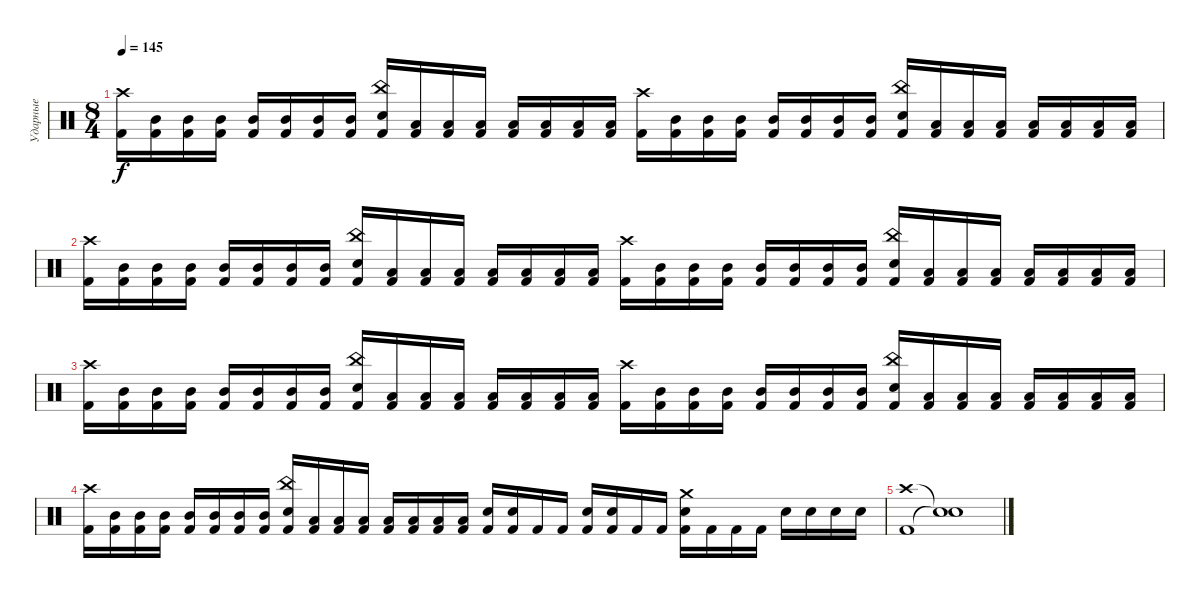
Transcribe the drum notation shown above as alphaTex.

\track ("Ударные" "Ударные") {instrument percussion}
\staff {score}
\articulation defaults
\ts (8 4)
\tempo 145
\clef neutral
\ks c
("Crash high (hit)" "Kick (hit) 2").16{dy f} ("Mid Tom (hit)" "Kick (hit) 2").16 ("Mid Tom (hit)" "Kick (hit) 2").16 ("Mid Tom (hit)" "Kick (hit) 2").16 ("Mid Tom (hit)" "Kick (hit) 2").16 ("Mid Tom (hit)" "Kick (hit) 2").16 ("Mid Tom (hit)" "Kick (hit) 2").16 ("Mid Tom (hit)" "Kick (hit) 2").16 ("China (hit)" "Electric Snare (hit)" "Kick (hit) 2").16 ("Low Tom (hit)" "Kick (hit) 2").16 ("Low Tom (hit)" "Kick (hit) 2").16 ("Low Tom (hit)" "Kick (hit) 2").16 ("Low Tom (hit)" "Kick (hit) 2").16 ("Low Tom (hit)" "Kick (hit) 2").16 ("Low Tom (hit)" "Kick (hit) 2").16 ("Low Tom (hit)" "Kick (hit) 2").16 ("Crash high (hit)" "Kick (hit) 2").16 ("Mid Tom (hit)" "Kick (hit) 2").16 ("Mid Tom (hit)" "Kick (hit) 2").16 ("Mid Tom (hit)" "Kick (hit) 2").16 ("Mid Tom (hit)" "Kick (hit) 2").16 ("Mid Tom (hit)" "Kick (hit) 2").16 ("Mid Tom (hit)" "Kick (hit) 2").16 ("Mid Tom (hit)" "Kick (hit) 2").16 ("China (hit)" "Electric Snare (hit)" "Kick (hit) 2").16 ("Low Tom (hit)" "Kick (hit) 2").16 ("Low Tom (hit)" "Kick (hit) 2").16 ("Low Tom (hit)" "Kick (hit) 2").16 ("Low Tom (hit)" "Kick (hit) 2").16 ("Low Tom (hit)" "Kick (hit) 2").16 ("Low Tom (hit)" "Kick (hit) 2").16 ("Low Tom (hit)" "Kick (hit) 2").16 |
("Crash high (hit)" "Kick (hit) 2").16 ("Mid Tom (hit)" "Kick (hit) 2").16 ("Mid Tom (hit)" "Kick (hit) 2").16 ("Mid Tom (hit)" "Kick (hit) 2").16 ("Mid Tom (hit)" "Kick (hit) 2").16 ("Mid Tom (hit)" "Kick (hit) 2").16 ("Mid Tom (hit)" "Kick (hit) 2").16 ("Mid Tom (hit)" "Kick (hit) 2").16 ("China (hit)" "Electric Snare (hit)" "Kick (hit) 2").16 ("Low Tom (hit)" "Kick (hit) 2").16 ("Low Tom (hit)" "Kick (hit) 2").16 ("Low Tom (hit)" "Kick (hit) 2").16 ("Low Tom (hit)" "Kick (hit) 2").16 ("Low Tom (hit)" "Kick (hit) 2").16 ("Low Tom (hit)" "Kick (hit) 2").16 ("Low Tom (hit)" "Kick (hit) 2").16 ("Crash high (hit)" "Kick (hit) 2").16 ("Mid Tom (hit)" "Kick (hit) 2").16 ("Mid Tom (hit)" "Kick (hit) 2").16 ("Mid Tom (hit)" "Kick (hit) 2").16 ("Mid Tom (hit)" "Kick (hit) 2").16 ("Mid Tom (hit)" "Kick (hit) 2").16 ("Mid Tom (hit)" "Kick (hit) 2").16 ("Mid Tom (hit)" "Kick (hit) 2").16 ("China (hit)" "Electric Snare (hit)" "Kick (hit) 2").16 ("Low Tom (hit)" "Kick (hit) 2").16 ("Low Tom (hit)" "Kick (hit) 2").16 ("Low Tom (hit)" "Kick (hit) 2").16 ("Low Tom (hit)" "Kick (hit) 2").16 ("Low Tom (hit)" "Kick (hit) 2").16 ("Low Tom (hit)" "Kick (hit) 2").16 ("Low Tom (hit)" "Kick (hit) 2").16 |
("Crash high (hit)" "Kick (hit) 2").16 ("Mid Tom (hit)" "Kick (hit) 2").16 ("Mid Tom (hit)" "Kick (hit) 2").16 ("Mid Tom (hit)" "Kick (hit) 2").16 ("Mid Tom (hit)" "Kick (hit) 2").16 ("Mid Tom (hit)" "Kick (hit) 2").16 ("Mid Tom (hit)" "Kick (hit) 2").16 ("Mid Tom (hit)" "Kick (hit) 2").16 ("China (hit)" "Electric Snare (hit)" "Kick (hit) 2").16 ("Low Tom (hit)" "Kick (hit) 2").16 ("Low Tom (hit)" "Kick (hit) 2").16 ("Low Tom (hit)" "Kick (hit) 2").16 ("Low Tom (hit)" "Kick (hit) 2").16 ("Low Tom (hit)" "Kick (hit) 2").16 ("Low Tom (hit)" "Kick (hit) 2").16 ("Low Tom (hit)" "Kick (hit) 2").16 ("Crash high (hit)" "Kick (hit) 2").16 ("Mid Tom (hit)" "Kick (hit) 2").16 ("Mid Tom (hit)" "Kick (hit) 2").16 ("Mid Tom (hit)" "Kick (hit) 2").16 ("Mid Tom (hit)" "Kick (hit) 2").16 ("Mid Tom (hit)" "Kick (hit) 2").16 ("Mid Tom (hit)" "Kick (hit) 2").16 ("Mid Tom (hit)" "Kick (hit) 2").16 ("China (hit)" "Electric Snare (hit)" "Kick (hit) 2").16 ("Low Tom (hit)" "Kick (hit) 2").16 ("Low Tom (hit)" "Kick (hit) 2").16 ("Low Tom (hit)" "Kick (hit) 2").16 ("Low Tom (hit)" "Kick (hit) 2").16 ("Low Tom (hit)" "Kick (hit) 2").16 ("Low Tom (hit)" "Kick (hit) 2").16 ("Low Tom (hit)" "Kick (hit) 2").16 |
("Crash high (hit)" "Kick (hit) 2").16 ("Mid Tom (hit)" "Kick (hit) 2").16 ("Mid Tom (hit)" "Kick (hit) 2").16 ("Mid Tom (hit)" "Kick (hit) 2").16 ("Mid Tom (hit)" "Kick (hit) 2").16 ("Mid Tom (hit)" "Kick (hit) 2").16 ("Mid Tom (hit)" "Kick (hit) 2").16 ("Mid Tom (hit)" "Kick (hit) 2").16 ("China (hit)" "Electric Snare (hit)" "Kick (hit) 2").16 ("Low Tom (hit)" "Kick (hit) 2").16 ("Low Tom (hit)" "Kick (hit) 2").16 ("Low Tom (hit)" "Kick (hit) 2").16 ("Low Tom (hit)" "Kick (hit) 2").16 ("Low Tom (hit)" "Kick (hit) 2").16 ("Low Tom (hit)" "Kick (hit) 2").16 ("Low Tom (hit)" "Kick (hit) 2").16 ("Electric Snare (hit)" "Kick (hit) 2").16 ("Electric Snare (hit)" "Kick (hit) 2").16 "Kick (hit) 2".16 "Kick (hit) 2".16 ("Electric Snare (hit)" "Kick (hit) 2").16 ("Electric Snare (hit)" "Kick (hit) 2").16 "Kick (hit) 2".16 "Kick (hit) 2".16 ("Crash medium (hit)" "Electric Snare (hit)" "Kick (hit) 2").16 "Kick (hit) 2".16 "Kick (hit) 2".16 "Kick (hit) 2".16 "Electric Snare (hit)".16 "Electric Snare (hit)".16 "Electric Snare (hit)".16 "Electric Snare (hit)".16 |
("Crash high (hit)" "Kick (hit) 2").1 ("Snare (hit)"{t} "Snare (hit)"{t}).1
